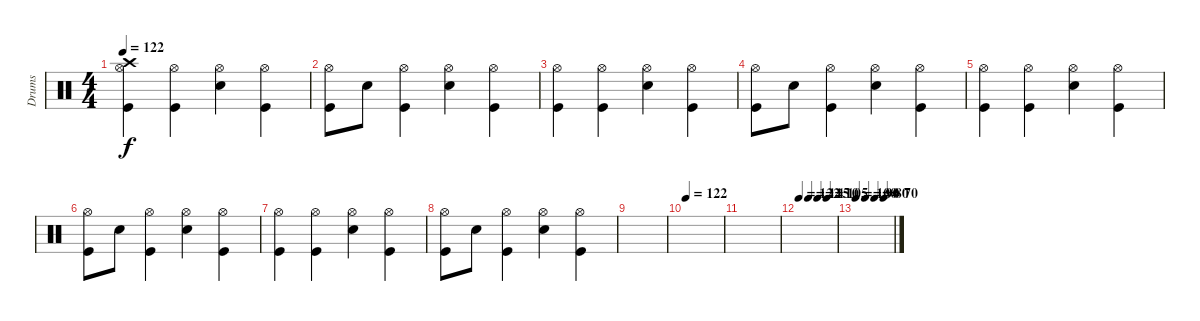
\track ("Drums" "Drums") {instrument percussion}
\staff {score}
\articulation defaults
\ts (4 4)
\tempo 122
\clef neutral
\ks c
("Kick (hit)" "Hi-Hat (open)" "Crash high (hit)").4{dy f} ("Kick (hit)" "Hi-Hat (open)").4 ("Snare (hit) 2" "Hi-Hat (open)").4 ("Kick (hit)" "Hi-Hat (open)").4 |
("Kick (hit)" "Hi-Hat (open)").8 "Snare (hit) 2".8 ("Kick (hit)" "Hi-Hat (open)").4 ("Snare (hit) 2" "Hi-Hat (open)").4 ("Kick (hit)" "Hi-Hat (open)").4 |
("Kick (hit)" "Hi-Hat (open)").4 ("Kick (hit)" "Hi-Hat (open)").4 ("Snare (hit) 2" "Hi-Hat (open)").4 ("Kick (hit)" "Hi-Hat (open)").4 |
("Kick (hit)" "Hi-Hat (open)").8 "Snare (hit) 2".8 ("Kick (hit)" "Hi-Hat (open)").4 ("Snare (hit) 2" "Hi-Hat (open)").4 ("Kick (hit)" "Hi-Hat (open)").4 |
("Kick (hit)" "Hi-Hat (open)").4 ("Kick (hit)" "Hi-Hat (open)").4 ("Snare (hit) 2" "Hi-Hat (open)").4 ("Kick (hit)" "Hi-Hat (open)").4 |
("Kick (hit)" "Hi-Hat (open)").8 "Snare (hit) 2".8 ("Kick (hit)" "Hi-Hat (open)").4 ("Snare (hit) 2" "Hi-Hat (open)").4 ("Kick (hit)" "Hi-Hat (open)").4 |
("Kick (hit)" "Hi-Hat (open)").4 ("Kick (hit)" "Hi-Hat (open)").4 ("Snare (hit) 2" "Hi-Hat (open)").4 ("Kick (hit)" "Hi-Hat (open)").4 |
("Kick (hit)" "Hi-Hat (open)").8 "Snare (hit) 2".8 ("Kick (hit)" "Hi-Hat (open)").4 ("Snare (hit) 2" "Hi-Hat (open)").4 ("Kick (hit)" "Hi-Hat (open)").4 |
|
\tempo 122
|
|
\tempo 122
\tempo (115 0.25)
\tempo (110 0.5)
\tempo (105 0.75)
|
\tempo 100
\tempo (90 0.25)
\tempo (80 0.5)
\tempo (70 0.75)
